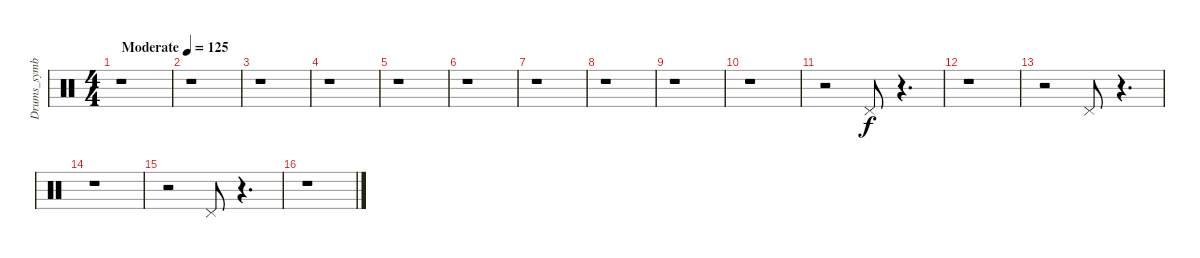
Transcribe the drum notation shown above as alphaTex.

\track ("Drums_symbal" "Drums_symb") {instrument percussion}
\staff {score}
\articulation defaults
\ts (4 4)
\tempo (125 "Moderate")
\clef neutral
\ks c
r.1{dy f} |
r.1 |
r.1 |
r.1 |
r.1 |
r.1 |
r.1 |
r.1 |
r.1 |
r.1 |
r.2 "Pedal Hi-Hat (hit)".8 r.4{d} |
r.1 |
r.2 "Pedal Hi-Hat (hit)".8 r.4{d} |
r.1 |
r.2 "Pedal Hi-Hat (hit)".8 r.4{d} |
r.1
